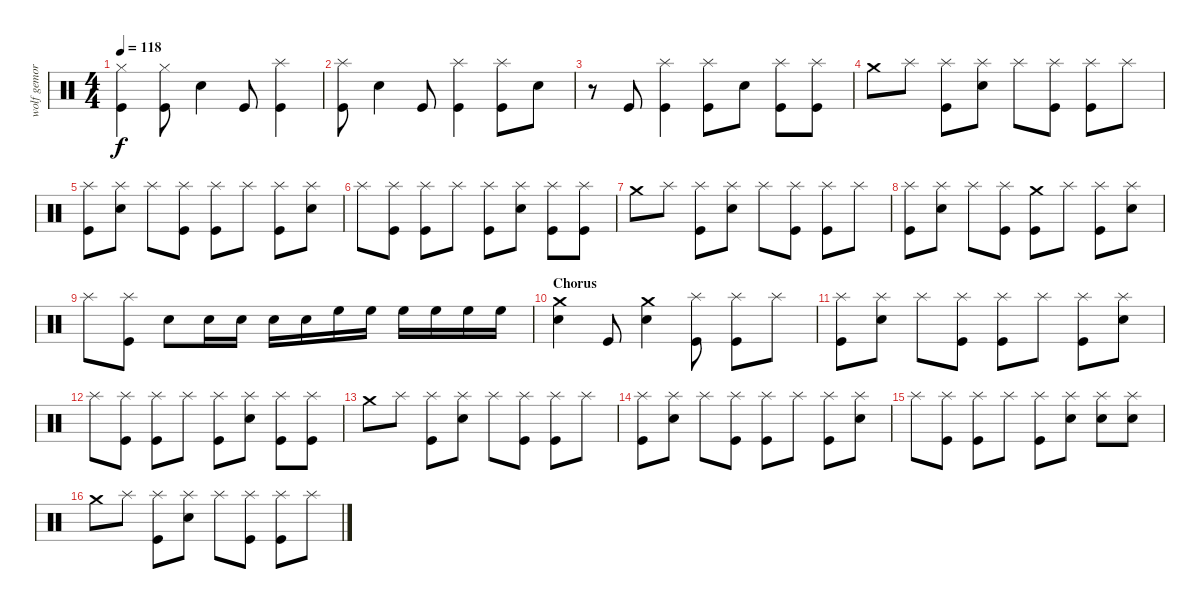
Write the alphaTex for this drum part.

\track ("wolf gemora" "wolf gemor") {instrument percussion}
\staff {score}
\articulation defaults
\ts (4 4)
\tempo 118
\clef neutral
\ks c
("Kick (hit)" "Hi-Hat (closed)").4{dy f} ("Kick (hit)" "Hi-Hat (closed)").8 "Electric Snare (hit)".4 "Kick (hit)".8 ("Kick (hit)" "Splash (hit)").4 |
("Kick (hit)" "Splash (hit)").8 "Electric Snare (hit)".4 "Kick (hit)".8 ("Kick (hit)" "Splash (hit)").4 ("Kick (hit)" "Splash (hit)").8 "Electric Snare (hit)".8 |
r.8 "Kick (hit)".8 ("Kick (hit)" "Splash (hit)").4 ("Kick (hit)" "Splash (hit)").8 "Electric Snare (hit)".8 ("Kick (hit)" "Splash (hit)").8 ("Kick (hit)" "Splash (hit)").8 |
"Crash medium (hit)".8 "Splash (hit)".8 ("Splash (hit)" "Kick (hit)").8 ("Splash (hit)" "Electric Snare (hit)").8 "Splash (hit)".8 ("Splash (hit)" "Kick (hit)").8 ("Splash (hit)" "Kick (hit)").8 "Splash (hit)".8 |
("Splash (hit)" "Kick (hit)").8 ("Splash (hit)" "Electric Snare (hit)").8 "Splash (hit)".8 ("Splash (hit)" "Kick (hit)").8 ("Splash (hit)" "Kick (hit)").8 "Splash (hit)".8 ("Splash (hit)" "Kick (hit)").8 ("Splash (hit)" "Electric Snare (hit)").8 |
"Splash (hit)".8 ("Splash (hit)" "Kick (hit)").8 ("Splash (hit)" "Kick (hit)").8 "Splash (hit)".8 ("Splash (hit)" "Kick (hit)").8 ("Splash (hit)" "Electric Snare (hit)").8 ("Splash (hit)" "Kick (hit)").8 ("Splash (hit)" "Kick (hit)").8 |
"Crash medium (hit)".8 "Splash (hit)".8 ("Splash (hit)" "Kick (hit)").8 ("Splash (hit)" "Electric Snare (hit)").8 "Splash (hit)".8 ("Splash (hit)" "Kick (hit)").8 ("Splash (hit)" "Kick (hit)").8 "Splash (hit)".8 |
("Splash (hit)" "Kick (hit)").8 ("Splash (hit)" "Electric Snare (hit)").8 "Splash (hit)".8 ("Splash (hit)" "Kick (hit)").8 ("Crash medium (hit)" "Kick (hit)").8 "Splash (hit)".8 ("Splash (hit)" "Kick (hit)").8 ("Splash (hit)" "Electric Snare (hit)").8 |
"Splash (hit)".8 ("Splash (hit)" "Kick (hit)").8 "Electric Snare (hit)".8 "Electric Snare (hit)".16 "Electric Snare (hit)".16 "Electric Snare (hit)".16 "Electric Snare (hit)".16 "High Floor Tom (hit)".16 "High Floor Tom (hit)".16 "High Floor Tom (hit)".16 "High Floor Tom (hit)".16 "High Floor Tom (hit)".16 "High Floor Tom (hit)".16 |
\section ("" "Chorus")
("Crash medium (hit)" "Electric Snare (hit)").4 "Kick (hit)".8 ("Crash medium (hit)" "Electric Snare (hit)").4 ("Splash (hit)" "Kick (hit)").8 ("Splash (hit)" "Kick (hit)").8 "Splash (hit)".8 |
("Splash (hit)" "Kick (hit)").8 ("Splash (hit)" "Electric Snare (hit)").8 "Splash (hit)".8 ("Splash (hit)" "Kick (hit)").8 ("Splash (hit)" "Kick (hit)").8 "Splash (hit)".8 ("Splash (hit)" "Kick (hit)").8 ("Splash (hit)" "Electric Snare (hit)").8 |
"Splash (hit)".8 ("Splash (hit)" "Kick (hit)").8 ("Splash (hit)" "Kick (hit)").8 "Splash (hit)".8 ("Splash (hit)" "Kick (hit)").8 ("Splash (hit)" "Electric Snare (hit)").8 ("Splash (hit)" "Kick (hit)").8 ("Splash (hit)" "Kick (hit)").8 |
"Crash medium (hit)".8 "Splash (hit)".8 ("Splash (hit)" "Kick (hit)").8 ("Splash (hit)" "Electric Snare (hit)").8 "Splash (hit)".8 ("Splash (hit)" "Kick (hit)").8 ("Splash (hit)" "Kick (hit)").8 "Splash (hit)".8 |
("Splash (hit)" "Kick (hit)").8 ("Splash (hit)" "Electric Snare (hit)").8 "Splash (hit)".8 ("Splash (hit)" "Kick (hit)").8 ("Splash (hit)" "Kick (hit)").8 "Splash (hit)".8 ("Splash (hit)" "Kick (hit)").8 ("Splash (hit)" "Electric Snare (hit)").8 |
"Splash (hit)".8 ("Splash (hit)" "Kick (hit)").8 ("Splash (hit)" "Kick (hit)").8 "Splash (hit)".8 ("Splash (hit)" "Kick (hit)").8 ("Splash (hit)" "Electric Snare (hit)").8 ("Splash (hit)" "Electric Snare (hit)").8 ("Splash (hit)" "Electric Snare (hit)").8 |
"Crash medium (hit)".8 "Splash (hit)".8 ("Splash (hit)" "Kick (hit)").8 ("Splash (hit)" "Electric Snare (hit)").8 "Splash (hit)".8 ("Splash (hit)" "Kick (hit)").8 ("Splash (hit)" "Kick (hit)").8 "Splash (hit)".8
